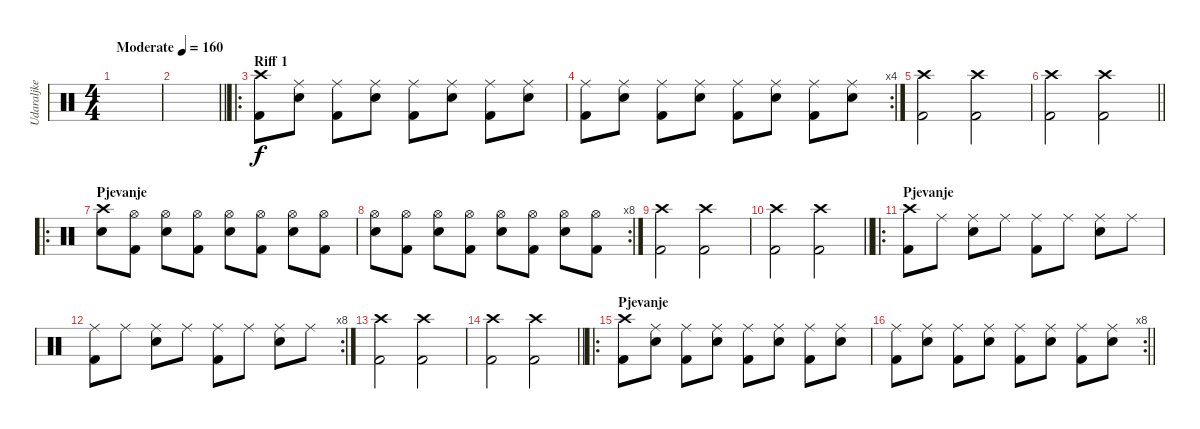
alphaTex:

\track ("Udaraljke" "Udaraljke") {instrument percussion}
\staff {score}
\articulation defaults
\ts (4 4)
\tempo (160 "Moderate")
\clef neutral
\ks c
|
\barLineRight lightlight
|
\ro
\section ("" "Riff 1")
("Crash high (hit)" "Kick (hit) 2").8 ("Ride (middle)" "Electric Snare (hit)").8 ("Ride (middle)" "Kick (hit) 2").8 ("Ride (middle)" "Electric Snare (hit)").8 ("Ride (middle)" "Kick (hit) 2").8 ("Ride (middle)" "Electric Snare (hit)").8 ("Ride (middle)" "Kick (hit) 2").8 ("Ride (middle)" "Electric Snare (hit)").8 |
\rc 4
("Ride (middle)" "Kick (hit) 2").8 ("Ride (middle)" "Electric Snare (hit)").8 ("Ride (middle)" "Kick (hit) 2").8 ("Ride (middle)" "Electric Snare (hit)").8 ("Ride (middle)" "Kick (hit) 2").8 ("Ride (middle)" "Electric Snare (hit)").8 ("Ride (middle)" "Kick (hit) 2").8 ("Ride (middle)" "Electric Snare (hit)").8 |
("Crash high (hit)" "Kick (hit) 2").2 ("Crash high (hit)" "Kick (hit) 2").2 |
\barLineRight lightlight
("Crash high (hit)" "Kick (hit) 2").2 ("Crash high (hit)" "Kick (hit) 2").2 |
\ro
\section ("" "Pjevanje")
("Crash high (hit)" "Electric Snare (hit)").8 ("Hi-Hat (open)" "Kick (hit) 2").8 ("Hi-Hat (open)" "Electric Snare (hit)").8 ("Hi-Hat (open)" "Kick (hit) 2").8 ("Hi-Hat (open)" "Electric Snare (hit)").8 ("Hi-Hat (open)" "Kick (hit) 2").8 ("Hi-Hat (open)" "Electric Snare (hit)").8 ("Hi-Hat (open)" "Kick (hit) 2").8 |
\rc 8
("Hi-Hat (open)" "Electric Snare (hit)").8 ("Hi-Hat (open)" "Kick (hit) 2").8 ("Hi-Hat (open)" "Electric Snare (hit)").8 ("Hi-Hat (open)" "Kick (hit) 2").8 ("Hi-Hat (open)" "Electric Snare (hit)").8 ("Hi-Hat (open)" "Kick (hit) 2").8 ("Hi-Hat (open)" "Electric Snare (hit)").8 ("Hi-Hat (open)" "Kick (hit) 2").8 |
("Crash high (hit)" "Kick (hit) 2").2 ("Crash high (hit)" "Kick (hit) 2").2 |
\barLineRight lightlight
("Crash high (hit)" "Kick (hit) 2").2 ("Crash high (hit)" "Kick (hit) 2").2 |
\ro
\section ("" "Pjevanje")
("Crash high (hit)" "Kick (hit) 2").8 "Ride (middle)".8 ("Ride (middle)" "Electric Snare (hit)").8 "Ride (middle)".8 ("Ride (middle)" "Kick (hit) 2").8 "Ride (middle)".8 ("Ride (middle)" "Electric Snare (hit)").8 "Ride (middle)".8 |
\rc 8
("Ride (middle)" "Kick (hit) 2").8 "Ride (middle)".8 ("Ride (middle)" "Electric Snare (hit)").8 "Ride (middle)".8 ("Ride (middle)" "Kick (hit) 2").8 "Ride (middle)".8 ("Ride (middle)" "Electric Snare (hit)").8 "Ride (middle)".8 |
("Crash high (hit)" "Kick (hit) 2").2 ("Crash high (hit)" "Kick (hit) 2").2 |
\barLineRight lightlight
("Crash high (hit)" "Kick (hit) 2").2 ("Crash high (hit)" "Kick (hit) 2").2 |
\ro
\section ("" "Pjevanje")
("Crash high (hit)" "Kick (hit) 2").8 ("Ride (middle)" "Electric Snare (hit)").8 ("Ride (middle)" "Kick (hit) 2").8 ("Ride (middle)" "Electric Snare (hit)").8 ("Ride (middle)" "Kick (hit) 2").8 ("Ride (middle)" "Electric Snare (hit)").8 ("Ride (middle)" "Kick (hit) 2").8 ("Ride (middle)" "Electric Snare (hit)").8 |
\rc 8
\barLineRight lightlight
("Ride (middle)" "Kick (hit) 2").8 ("Ride (middle)" "Electric Snare (hit)").8 ("Ride (middle)" "Kick (hit) 2").8 ("Ride (middle)" "Electric Snare (hit)").8 ("Ride (middle)" "Kick (hit) 2").8 ("Ride (middle)" "Electric Snare (hit)").8 ("Ride (middle)" "Kick (hit) 2").8 ("Ride (middle)" "Electric Snare (hit)").8
